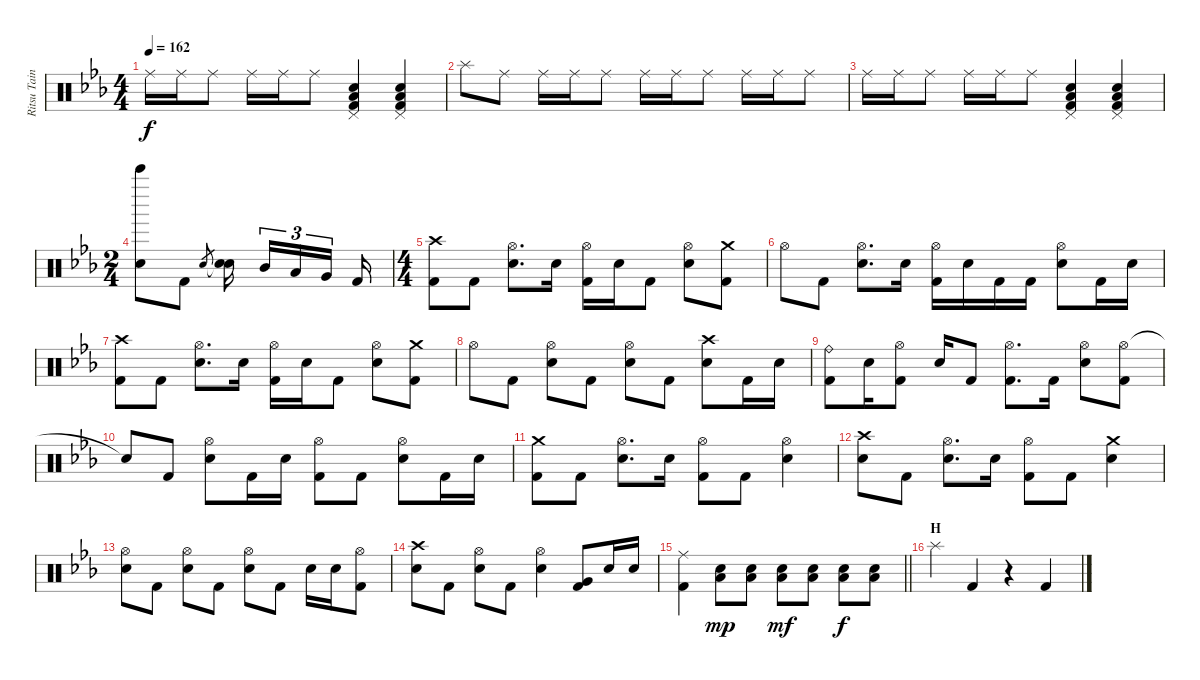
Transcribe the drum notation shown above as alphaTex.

\track ("Ritsu Tainaka" "Ritsu Tain") {instrument percussion}
\staff {score}
\articulation defaults
\ts (4 4)
\tempo 162
\clef neutral
\ks eb "Ride (middle)".16{dy f} "Ride (middle)".16 "Ride (middle)".8 "Ride (middle)".16 "Ride (middle)".16 "Ride (middle)".8
("Pedal Hi-Hat (hit)" "Electric Snare (hit)" "Low Floor Tom (hit)" "Kick (hit) 2").4 ("Pedal Hi-Hat (hit)" "Electric Snare (hit)" "Low Floor Tom (hit)" "Kick (hit) 2").4 |
"Splash (hit)".8 "Ride (middle)".8 "Ride (middle)".16 "Ride (middle)".16 "Ride (middle)".8 "Ride (middle)".16 "Ride (middle)".16 "Ride (middle)".8 "Ride (middle)".16 "Ride (middle)".16 "Ride (middle)".8 |
"Ride (middle)".16 "Ride (middle)".16 "Ride (middle)".8 "Ride (middle)".16 "Ride (middle)".16 "Ride (middle)".8 ("Pedal Hi-Hat (hit)" "Electric Snare (hit)" "Low Floor Tom (hit)" "Kick (hit) 2").4 ("Pedal Hi-Hat (hit)" "Electric Snare (hit)" "Low Floor Tom (hit)" "Kick (hit) 2").4 |
\ts (2 4)
("Bell Tree (hit)" "Electric Snare (hit)").8 "Kick (hit) 2".8 "Electric Snare (hit)".8{gr} ("Snare (hit)"{t} "Electric Snare (hit)").16{beam splitsecondary} "Mid Tom (hit)".16{tu (3 2)} "Low Tom (hit)".16{tu (3 2)} "Very Low Tom (hit)".16{tu (3 2) beam splitsecondary} "Kick (hit) 2".16 |
\ts (4 4)
("Crash high (hit)" "Kick (hit) 2").8 "Kick (hit) 2".8 ("Hi-Hat (open)" "Electric Snare (hit)").8{d} "Electric Snare (hit)".16 ("Hi-Hat (open)" "Kick (hit) 2").16 "Electric Snare (hit)".16 "Kick (hit) 2".8 ("Hi-Hat (open)" "Electric Snare (hit)").8 ("Crash medium (hit)" "Kick (hit) 2").8 |
"Hi-Hat (open)".8 "Kick (hit) 2".8 ("Hi-Hat (open)" "Electric Snare (hit)").8{d} "Electric Snare (hit)".16 ("Hi-Hat (open)" "Kick (hit) 2").16 "Electric Snare (hit)".16 "Kick (hit) 2".16 "Kick (hit) 2".16 ("Hi-Hat (open)" "Electric Snare (hit)").8 "Kick (hit) 2".16 "Electric Snare (hit)".16 |
("Crash high (hit)" "Kick (hit) 2").8 "Kick (hit) 2".8 ("Hi-Hat (open)" "Electric Snare (hit)").8{d} "Electric Snare (hit)".16 ("Hi-Hat (open)" "Kick (hit) 2").16 "Electric Snare (hit)".16 "Kick (hit) 2".8 ("Hi-Hat (open)" "Electric Snare (hit)").8 ("Crash medium (hit)" "Kick (hit) 2").8 |
"Hi-Hat (open)".8 "Kick (hit) 2".8 ("Hi-Hat (open)" "Electric Snare (hit)").8 "Kick (hit) 2".8 ("Hi-Hat (open)" "Electric Snare (hit)").8 "Kick (hit) 2".8 ("Crash high (hit)" "Electric Snare (hit)").8 "Kick (hit) 2".16 "Electric Snare (hit)".16 |
("Ride (bell)" "Kick (hit) 2").8 "Electric Snare (hit)".16 ("Hi-Hat (open)" "Kick (hit) 2").8 "Electric Snare (hit)".16 "Kick (hit) 2".8 ("Hi-Hat (open)" "Kick (hit) 2").8{d} "Kick (hit) 2".16 ("Hi-Hat (open)" "Electric Snare (hit)").8 ("Hi-Hat (open)" "Kick (hit) 2").8 |
"Snare (hit)"{t}.8 "Kick (hit) 2".8 ("Hi-Hat (open)" "Electric Snare (hit)").8 "Kick (hit) 2".16 "Electric Snare (hit)".16 ("Hi-Hat (open)" "Kick (hit) 2").8 "Kick (hit) 2".8 ("Hi-Hat (open)" "Electric Snare (hit)").8 "Kick (hit) 2".16 "Electric Snare (hit)".16 |
("Crash medium (hit)" "Kick (hit) 2").8 "Kick (hit) 2".8 ("Hi-Hat (open)" "Electric Snare (hit)").8{d} "Electric Snare (hit)".16 ("Hi-Hat (open)" "Kick (hit) 2").8 "Kick (hit) 2".8 ("Hi-Hat (open)" "Electric Snare (hit)").4 |
("Crash high (hit)" "Electric Snare (hit)").8 "Kick (hit) 2".8 ("Hi-Hat (open)" "Electric Snare (hit)").8{d} "Electric Snare (hit)".16 ("Hi-Hat (open)" "Kick (hit) 2").8 "Kick (hit) 2".8 ("Crash medium (hit)" "Electric Snare (hit)").4 |
("Hi-Hat (open)" "Electric Snare (hit)").8 "Kick (hit) 2".8 ("Hi-Hat (open)" "Electric Snare (hit)").8 "Kick (hit) 2".8 ("Hi-Hat (open)" "Electric Snare (hit)").8 "Kick (hit) 2".8 "Electric Snare (hit)".16 "Electric Snare (hit)".16 ("Hi-Hat (open)" "Kick (hit) 2").8 |
("Crash high (hit)" "Electric Snare (hit)").8 "Kick (hit) 2".8 ("Hi-Hat (open)" "Electric Snare (hit)").8 "Kick (hit) 2".8 ("Hi-Hat (open)" "Electric Snare (hit)").4 ("Very Low Tom (hit)" "Kick (hit) 2").8 "Electric Snare (hit)".16 "Electric Snare (hit)".16 |
\barLineRight lightlight
("Ride (middle)" "Kick (hit) 2").4 ("Electric Snare (hit)" "Low Floor Tom (hit)").8{dy mp} ("Electric Snare (hit)" "Low Floor Tom (hit)").8 ("Electric Snare (hit)" "Low Floor Tom (hit)").8{dy mf} ("Electric Snare (hit)" "Low Floor Tom (hit)").8 ("Electric Snare (hit)" "Low Floor Tom (hit)").8{dy f} ("Electric Snare (hit)" "Low Floor Tom (hit)").8 |
\section ("" "H")
"Splash (hit)".4 "Kick (hit) 2".4 r.4 "Kick (hit) 2".4
